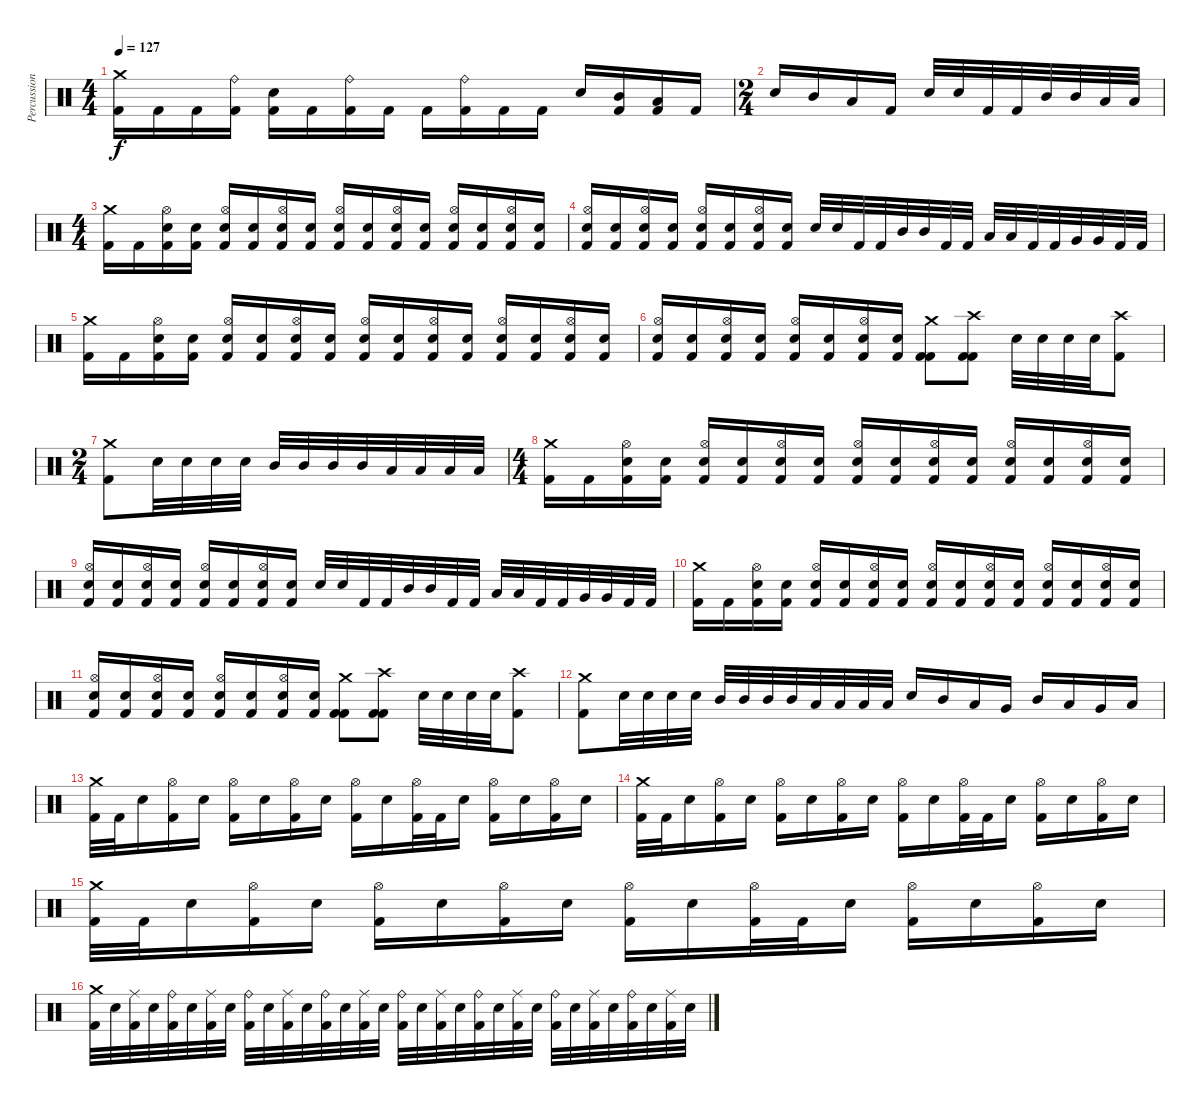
\track ("Percussion" "Percussion") {instrument percussion}
\staff {score}
\articulation defaults
\ts (4 4)
\tempo 127
\clef neutral
\ks c
("Crash medium (hit)" "Kick (hit) 2").16{dy f} "Kick (hit) 2".16 "Kick (hit) 2".16 ("Ride (bell)" "Kick (hit) 2").16 ("Snare (hit) 2" "Kick (hit) 2").16 "Kick (hit) 2".16 ("Ride (bell)" "Kick (hit) 2").16 "Kick (hit) 2".16 "Kick (hit) 2".16 ("Ride (bell)" "Kick (hit) 2").16 "Kick (hit) 2".16 "Kick (hit) 2".16 "Snare (hit) 2".16 ("Mid Tom (hit)" "Kick (hit) 2").16 ("Low Tom (hit)" "Kick (hit) 2").16 "Kick (hit) 2".16 |
\ts (2 4)
"Snare (hit) 2".16 "Mid Tom (hit)".16 "Low Tom (hit)".16 "Kick (hit) 2".16 "Snare (hit) 2".32 "Snare (hit) 2".32 "Kick (hit) 2".32 "Kick (hit) 2".32 "Mid Tom (hit)".32 "Mid Tom (hit)".32 "Low Tom (hit)".32 "Low Tom (hit)".32 |
\ts (4 4)
("Crash medium (hit)" "Kick (hit) 2").16{volume 13} "Kick (hit) 2".16 ("Hi-Hat (open)" "Electric Snare (hit)" "Kick (hit) 2").16 ("Electric Snare (hit)" "Kick (hit) 2").16 ("Hi-Hat (open)" "Electric Snare (hit)" "Kick (hit) 2").16 ("Electric Snare (hit)" "Kick (hit) 2").16 ("Hi-Hat (open)" "Electric Snare (hit)" "Kick (hit) 2").16 ("Electric Snare (hit)" "Kick (hit) 2").16 ("Hi-Hat (open)" "Electric Snare (hit)" "Kick (hit) 2").16 ("Electric Snare (hit)" "Kick (hit) 2").16 ("Hi-Hat (open)" "Electric Snare (hit)" "Kick (hit) 2").16 ("Electric Snare (hit)" "Kick (hit) 2").16 ("Hi-Hat (open)" "Electric Snare (hit)" "Kick (hit) 2").16 ("Electric Snare (hit)" "Kick (hit) 2").16 ("Hi-Hat (open)" "Electric Snare (hit)" "Kick (hit) 2").16 ("Electric Snare (hit)" "Kick (hit) 2").16 |
("Hi-Hat (open)" "Electric Snare (hit)" "Kick (hit) 2").16 ("Electric Snare (hit)" "Kick (hit) 2").16 ("Hi-Hat (open)" "Electric Snare (hit)" "Kick (hit) 2").16 ("Electric Snare (hit)" "Kick (hit) 2").16 ("Hi-Hat (open)" "Electric Snare (hit)" "Kick (hit) 2").16 ("Electric Snare (hit)" "Kick (hit) 2").16 ("Hi-Hat (open)" "Electric Snare (hit)" "Kick (hit) 2").16 ("Electric Snare (hit)" "Kick (hit) 2").16 "Electric Snare (hit)".32 "Electric Snare (hit)".32 "Kick (hit) 2".32 "Kick (hit) 2".32 "Mid Tom (hit)".32 "Mid Tom (hit)".32 "Kick (hit) 2".32 "Kick (hit) 2".32 "Low Tom (hit)".32 "Low Tom (hit)".32 "Kick (hit) 2".32 "Kick (hit) 2".32 "Very Low Tom (hit)".32 "Very Low Tom (hit)".32 "Kick (hit) 2".32 "Kick (hit) 2".32 |
("Crash medium (hit)" "Kick (hit) 2").16{volume 13} "Kick (hit) 2".16 ("Hi-Hat (open)" "Electric Snare (hit)" "Kick (hit) 2").16 ("Electric Snare (hit)" "Kick (hit) 2").16 ("Hi-Hat (open)" "Electric Snare (hit)" "Kick (hit) 2").16 ("Electric Snare (hit)" "Kick (hit) 2").16 ("Hi-Hat (open)" "Electric Snare (hit)" "Kick (hit) 2").16 ("Electric Snare (hit)" "Kick (hit) 2").16 ("Hi-Hat (open)" "Electric Snare (hit)" "Kick (hit) 2").16 ("Electric Snare (hit)" "Kick (hit) 2").16 ("Hi-Hat (open)" "Electric Snare (hit)" "Kick (hit) 2").16 ("Electric Snare (hit)" "Kick (hit) 2").16 ("Hi-Hat (open)" "Electric Snare (hit)" "Kick (hit) 2").16 ("Electric Snare (hit)" "Kick (hit) 2").16 ("Hi-Hat (open)" "Electric Snare (hit)" "Kick (hit) 2").16 ("Electric Snare (hit)" "Kick (hit) 2").16 |
("Hi-Hat (open)" "Electric Snare (hit)" "Kick (hit) 2").16 ("Electric Snare (hit)" "Kick (hit) 2").16 ("Hi-Hat (open)" "Electric Snare (hit)" "Kick (hit) 2").16 ("Electric Snare (hit)" "Kick (hit) 2").16 ("Hi-Hat (open)" "Electric Snare (hit)" "Kick (hit) 2").16 ("Electric Snare (hit)" "Kick (hit) 2").16 ("Hi-Hat (open)" "Electric Snare (hit)" "Kick (hit) 2").16 ("Electric Snare (hit)" "Kick (hit) 2").16 ("Crash medium (hit)" "Kick (hit) 2" "Kick (hit) 2").8 ("Crash high (hit)" "Kick (hit) 2" "Kick (hit) 2").8 "Electric Snare (hit)".32 "Electric Snare (hit)".32 "Electric Snare (hit)".32 "Electric Snare (hit)".32 ("Crash high (hit)" "Kick (hit) 2").8 |
\ts (2 4)
("Crash medium (hit)" "Kick (hit) 2").8 "Electric Snare (hit)".32 "Electric Snare (hit)".32 "Electric Snare (hit)".32 "Electric Snare (hit)".32 "Mid Tom (hit)".32 "Mid Tom (hit)".32 "Mid Tom (hit)".32 "Mid Tom (hit)".32 "Low Tom (hit)".32 "Low Tom (hit)".32 "Low Tom (hit)".32 "Low Tom (hit)".32 |
\ts (4 4)
("Crash medium (hit)" "Kick (hit) 2").16{volume 13} "Kick (hit) 2".16 ("Hi-Hat (open)" "Electric Snare (hit)" "Kick (hit) 2").16 ("Electric Snare (hit)" "Kick (hit) 2").16 ("Hi-Hat (open)" "Electric Snare (hit)" "Kick (hit) 2").16 ("Electric Snare (hit)" "Kick (hit) 2").16 ("Hi-Hat (open)" "Electric Snare (hit)" "Kick (hit) 2").16 ("Electric Snare (hit)" "Kick (hit) 2").16 ("Hi-Hat (open)" "Electric Snare (hit)" "Kick (hit) 2").16 ("Electric Snare (hit)" "Kick (hit) 2").16 ("Hi-Hat (open)" "Electric Snare (hit)" "Kick (hit) 2").16 ("Electric Snare (hit)" "Kick (hit) 2").16 ("Hi-Hat (open)" "Electric Snare (hit)" "Kick (hit) 2").16 ("Electric Snare (hit)" "Kick (hit) 2").16 ("Hi-Hat (open)" "Electric Snare (hit)" "Kick (hit) 2").16 ("Electric Snare (hit)" "Kick (hit) 2").16 |
("Hi-Hat (open)" "Electric Snare (hit)" "Kick (hit) 2").16 ("Electric Snare (hit)" "Kick (hit) 2").16 ("Hi-Hat (open)" "Electric Snare (hit)" "Kick (hit) 2").16 ("Electric Snare (hit)" "Kick (hit) 2").16 ("Hi-Hat (open)" "Electric Snare (hit)" "Kick (hit) 2").16 ("Electric Snare (hit)" "Kick (hit) 2").16 ("Hi-Hat (open)" "Electric Snare (hit)" "Kick (hit) 2").16 ("Electric Snare (hit)" "Kick (hit) 2").16 "Electric Snare (hit)".32 "Electric Snare (hit)".32 "Kick (hit) 2".32 "Kick (hit) 2".32 "Mid Tom (hit)".32 "Mid Tom (hit)".32 "Kick (hit) 2".32 "Kick (hit) 2".32 "Low Tom (hit)".32 "Low Tom (hit)".32 "Kick (hit) 2".32 "Kick (hit) 2".32 "Very Low Tom (hit)".32 "Very Low Tom (hit)".32 "Kick (hit) 2".32 "Kick (hit) 2".32 |
("Crash medium (hit)" "Kick (hit) 2").16{volume 13} "Kick (hit) 2".16 ("Hi-Hat (open)" "Electric Snare (hit)" "Kick (hit) 2").16 ("Electric Snare (hit)" "Kick (hit) 2").16 ("Hi-Hat (open)" "Electric Snare (hit)" "Kick (hit) 2").16 ("Electric Snare (hit)" "Kick (hit) 2").16 ("Hi-Hat (open)" "Electric Snare (hit)" "Kick (hit) 2").16 ("Electric Snare (hit)" "Kick (hit) 2").16 ("Hi-Hat (open)" "Electric Snare (hit)" "Kick (hit) 2").16 ("Electric Snare (hit)" "Kick (hit) 2").16 ("Hi-Hat (open)" "Electric Snare (hit)" "Kick (hit) 2").16 ("Electric Snare (hit)" "Kick (hit) 2").16 ("Hi-Hat (open)" "Electric Snare (hit)" "Kick (hit) 2").16 ("Electric Snare (hit)" "Kick (hit) 2").16 ("Hi-Hat (open)" "Electric Snare (hit)" "Kick (hit) 2").16 ("Electric Snare (hit)" "Kick (hit) 2").16 |
("Hi-Hat (open)" "Electric Snare (hit)" "Kick (hit) 2").16 ("Electric Snare (hit)" "Kick (hit) 2").16 ("Hi-Hat (open)" "Electric Snare (hit)" "Kick (hit) 2").16 ("Electric Snare (hit)" "Kick (hit) 2").16 ("Hi-Hat (open)" "Electric Snare (hit)" "Kick (hit) 2").16 ("Electric Snare (hit)" "Kick (hit) 2").16 ("Hi-Hat (open)" "Electric Snare (hit)" "Kick (hit) 2").16 ("Electric Snare (hit)" "Kick (hit) 2").16 ("Crash medium (hit)" "Kick (hit) 2" "Kick (hit) 2").8 ("Crash high (hit)" "Kick (hit) 2" "Kick (hit) 2").8 "Electric Snare (hit)".32 "Electric Snare (hit)".32 "Electric Snare (hit)".32 "Electric Snare (hit)".32 ("Crash high (hit)" "Kick (hit) 2").8 |
("Crash medium (hit)" "Kick (hit) 2").8 "Electric Snare (hit)".32 "Electric Snare (hit)".32 "Electric Snare (hit)".32 "Electric Snare (hit)".32 "Mid Tom (hit)".32 "Mid Tom (hit)".32 "Mid Tom (hit)".32 "Mid Tom (hit)".32 "Low Tom (hit)".32 "Low Tom (hit)".32 "Low Tom (hit)".32 "Low Tom (hit)".32 "Electric Snare (hit)".16 "Mid Tom (hit)".16 "Low Tom (hit)".16 "Very Low Tom (hit)".16 "Mid Tom (hit)".16 "Low Tom (hit)".16 "Very Low Tom (hit)".16 "Low Floor Tom (hit)".16 |
("Crash medium (hit)" "Kick (hit) 2").32 "Kick (hit) 2".32 "Electric Snare (hit)".16 ("Hi-Hat (open)" "Kick (hit) 2").16 "Electric Snare (hit)".16 ("Hi-Hat (open)" "Kick (hit) 2").16 "Electric Snare (hit)".16 ("Hi-Hat (open)" "Kick (hit) 2").16 "Electric Snare (hit)".16 ("Hi-Hat (open)" "Kick (hit) 2").16 "Electric Snare (hit)".16 ("Hi-Hat (open)" "Kick (hit) 2").32 "Kick (hit) 2".32 "Electric Snare (hit)".16 ("Hi-Hat (open)" "Kick (hit) 2").16 "Electric Snare (hit)".16 ("Hi-Hat (open)" "Kick (hit) 2").16 "Electric Snare (hit)".16 |
("Crash medium (hit)" "Kick (hit) 2").32 "Kick (hit) 2".32 "Electric Snare (hit)".16 ("Hi-Hat (open)" "Kick (hit) 2").16 "Electric Snare (hit)".16 ("Hi-Hat (open)" "Kick (hit) 2").16 "Electric Snare (hit)".16 ("Hi-Hat (open)" "Kick (hit) 2").16 "Electric Snare (hit)".16 ("Hi-Hat (open)" "Kick (hit) 2").16 "Electric Snare (hit)".16 ("Hi-Hat (open)" "Kick (hit) 2").32 "Kick (hit) 2".32 "Electric Snare (hit)".16 ("Hi-Hat (open)" "Kick (hit) 2").16 "Electric Snare (hit)".16 ("Hi-Hat (open)" "Kick (hit) 2").16 "Electric Snare (hit)".16 |
("Crash medium (hit)" "Kick (hit) 2").32 "Kick (hit) 2".32 "Electric Snare (hit)".16 ("Hi-Hat (open)" "Kick (hit) 2").16 "Electric Snare (hit)".16 ("Hi-Hat (open)" "Kick (hit) 2").16 "Electric Snare (hit)".16 ("Hi-Hat (open)" "Kick (hit) 2").16 "Electric Snare (hit)".16 ("Hi-Hat (open)" "Kick (hit) 2").16 "Electric Snare (hit)".16 ("Hi-Hat (open)" "Kick (hit) 2").32 "Kick (hit) 2".32 "Electric Snare (hit)".16 ("Hi-Hat (open)" "Kick (hit) 2").16 "Electric Snare (hit)".16 ("Hi-Hat (open)" "Kick (hit) 2").16 "Electric Snare (hit)".16 |
("Crash medium (hit)" "Kick (hit) 2").32 "Electric Snare (hit)".32 ("Ride (middle)" "Kick (hit) 2").32 "Electric Snare (hit)".32 ("Ride (bell)" "Kick (hit) 2").32 "Electric Snare (hit)".32 ("Ride (middle)" "Kick (hit) 2").32 "Electric Snare (hit)".32 ("Ride (bell)" "Kick (hit) 2").32 "Electric Snare (hit)".32 ("Ride (middle)" "Kick (hit) 2").32 "Electric Snare (hit)".32 ("Ride (bell)" "Kick (hit) 2").32 "Electric Snare (hit)".32 ("Ride (middle)" "Kick (hit) 2").32 "Electric Snare (hit)".32 ("Ride (bell)" "Kick (hit) 2").32 "Electric Snare (hit)".32 ("Ride (middle)" "Kick (hit) 2").32 "Electric Snare (hit)".32 ("Ride (bell)" "Kick (hit) 2").32 "Electric Snare (hit)".32 ("Ride (middle)" "Kick (hit) 2").32 "Electric Snare (hit)".32 ("Ride (bell)" "Kick (hit) 2").32 "Electric Snare (hit)".32 ("Ride (middle)" "Kick (hit) 2").32 "Electric Snare (hit)".32 ("Ride (bell)" "Kick (hit) 2").32 "Electric Snare (hit)".32 ("Ride (middle)" "Kick (hit) 2").32 "Electric Snare (hit)".32
